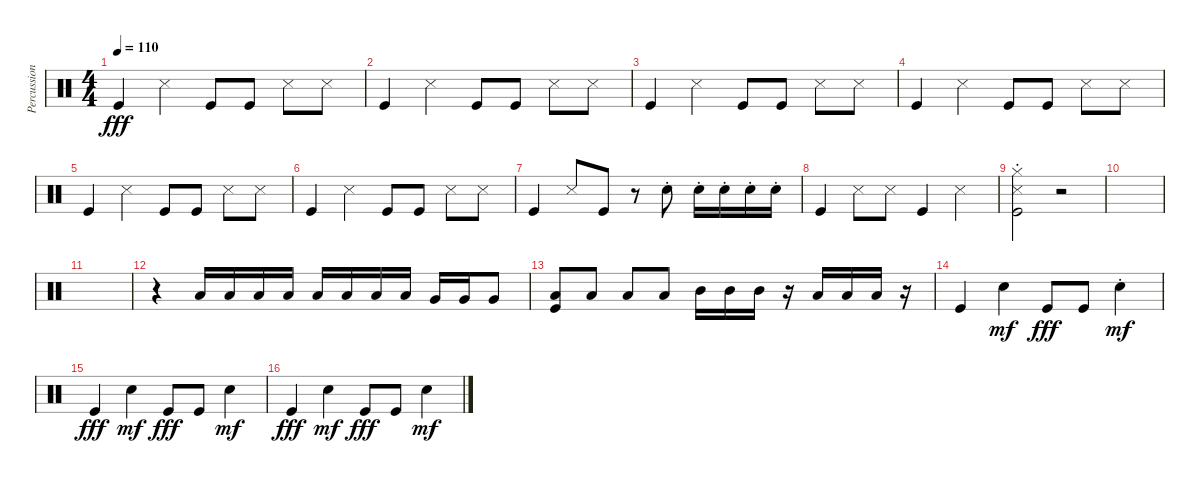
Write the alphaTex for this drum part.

\track ("Percussion" "Percussion") {instrument percussion}
\staff {score}
\articulation defaults
\ts (4 4)
\tempo 110
\clef neutral
\ks c "Kick (hit)".4{dy fff} "Snare (side stick) 3".4 "Kick (hit)".8 "Kick (hit)".8 "Snare (side stick) 3".8 "Snare (side stick) 3".8
|
"Kick (hit)".4 "Snare (side stick) 3".4 "Kick (hit)".8 "Kick (hit)".8 "Snare (side stick) 3".8 "Snare (side stick) 3".8 |
"Kick (hit)".4 "Snare (side stick) 3".4 "Kick (hit)".8 "Kick (hit)".8 "Snare (side stick) 3".8 "Snare (side stick) 3".8 |
"Kick (hit)".4 "Snare (side stick) 3".4 "Kick (hit)".8 "Kick (hit)".8 "Snare (side stick) 3".8 "Snare (side stick) 3".8 |
"Kick (hit)".4 "Snare (side stick) 3".4 "Kick (hit)".8 "Kick (hit)".8 "Snare (side stick) 3".8 "Snare (side stick) 3".8 |
"Kick (hit)".4 "Snare (side stick) 3".4 "Kick (hit)".8 "Kick (hit)".8 "Snare (side stick) 3".8 "Snare (side stick) 3".8 |
"Kick (hit)".4 "Snare (side stick) 3".8 "Kick (hit)".8 r.8 "Snare (hit) 2"{st}.8 "Snare (hit) 2"{st}.16 "Snare (hit) 2"{st}.16 "Snare (hit) 2"{st}.16 "Snare (hit) 2"{st}.16 |
"Kick (hit)".4 "Snare (side stick) 3".8 "Snare (side stick) 3".8 "Kick (hit)".4 "Snare (side stick) 3".4 |
("Hi-Hat (closed)"{st} "Kick (hit)"{st} "Snare (side stick) 3"{st}).2 r.2 |
|
|
r.4 "Low Tom (hit)".16 "Low Tom (hit)".16 "Low Tom (hit)".16 "Low Tom (hit)".16 "Low Floor Tom (hit)".16 "Low Floor Tom (hit)".16 "Low Floor Tom (hit)".16 "Low Floor Tom (hit)".16 "Very Low Tom (hit)".16 "Very Low Tom (hit)".16 "Very Low Tom (hit)".8 |
("Low Tom (hit)" "Kick (hit)").8 "Low Floor Tom (hit)".8 "Low Tom (hit)".8 "Low Floor Tom (hit)".8 "Mid Tom (hit)".16 "Mid Tom (hit)".16 "Mid Tom (hit)".16 r.16 "Low Tom (hit)".16 "Low Tom (hit)".16 "Low Tom (hit)".16 r.16 |
"Kick (hit)".4 "Snare (hit) 2".4{dy mf} "Kick (hit)".8{dy fff} "Kick (hit)".8 "Snare (hit) 2"{st}.4{dy mf} |
"Kick (hit)".4{dy fff} "Snare (hit) 2".4{dy mf} "Kick (hit)".8{dy fff} "Kick (hit)".8 "Snare (hit) 2".4{dy mf} |
"Kick (hit)".4{dy fff} "Snare (hit) 2".4{dy mf} "Kick (hit)".8{dy fff} "Kick (hit)".8 "Snare (hit) 2".4{dy mf}
